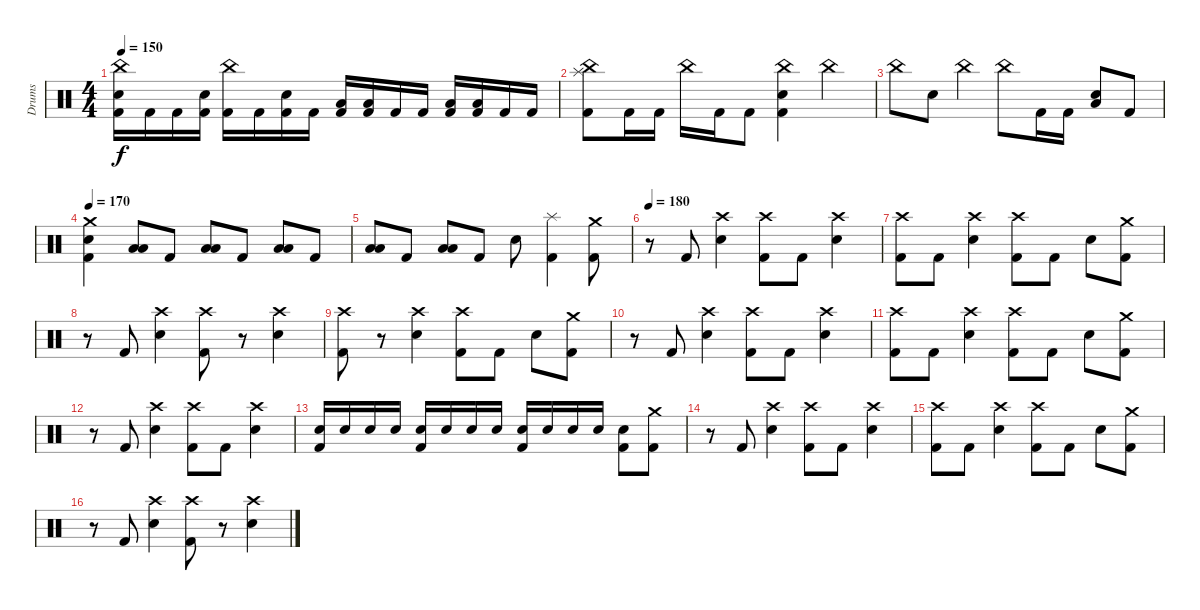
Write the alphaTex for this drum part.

\track ("Drums" "Drums") {instrument percussion}
\staff {score}
\articulation defaults
\ts (4 4)
\tempo 150
\clef neutral
\ks c
("China (hit)" "Snare (hit) 2" "Kick (hit) 2").16{dy f} "Kick (hit) 2".16 "Kick (hit) 2".16 ("Snare (hit) 2" "Kick (hit) 2").16 ("China (hit)" "Kick (hit) 2").16 "Kick (hit) 2".16 ("Snare (hit) 2" "Kick (hit) 2").16 "Kick (hit) 2".16 ("Low Tom (hit)" "Kick (hit) 2").16 ("Low Tom (hit)" "Kick (hit) 2").16 "Kick (hit) 2".16 "Kick (hit) 2".16 ("Low Floor Tom (hit)" "Kick (hit) 2").16 ("Low Floor Tom (hit)" "Kick (hit) 2").16 "Kick (hit) 2".16 "Kick (hit) 2".16 |
("Splash (hit)" "China (hit)" "Kick (hit) 2").8 "Kick (hit) 2".16 "Kick (hit) 2".16 "China (hit)".16 "Kick (hit) 2".16 "Kick (hit) 2".8 ("China (hit)" "Snare (hit) 2" "Kick (hit) 2").4 "China (hit)".4 |
"China (hit)".8 "Snare (hit) 2".8 "China (hit)".4 "China (hit)".8 "Kick (hit) 2".16 "Kick (hit) 2".16 ("Snare (hit) 2" "Low Floor Tom (hit)").8 "Kick (hit) 2".8 |
\tempo 170
("Crash medium (hit)" "Snare (hit) 2" "Kick (hit) 2").4 ("Low Tom (hit)" "Low Floor Tom (hit)").8 "Kick (hit) 2".8 ("Low Tom (hit)" "Low Floor Tom (hit)").8 "Kick (hit) 2".8 ("Low Tom (hit)" "Low Floor Tom (hit)").8 "Kick (hit) 2".8 |
("Low Tom (hit)" "Low Floor Tom (hit)").8 "Kick (hit) 2".8 ("Low Tom (hit)" "Low Floor Tom (hit)").8 "Kick (hit) 2".8 "Snare (hit) 2".8 ("Splash (hit)" "Kick (hit) 2").4 ("Crash medium (hit)" "Kick (hit) 2").8 |
\tempo 180
r.8 "Kick (hit) 2".8 ("Crash high (hit)" "Snare (hit) 2").4 ("Crash high (hit)" "Kick (hit) 2").8 "Kick (hit) 2".8 ("Crash high (hit)" "Snare (hit) 2").4 |
("Crash high (hit)" "Kick (hit) 2").8 "Kick (hit) 2".8 ("Crash high (hit)" "Snare (hit) 2").4 ("Crash high (hit)" "Kick (hit) 2").8 "Kick (hit) 2".8 "Snare (hit) 2".8 ("Crash medium (hit)" "Kick (hit) 2").8 |
r.8 "Kick (hit) 2".8 ("Crash high (hit)" "Snare (hit) 2").4 ("Crash high (hit)" "Kick (hit) 2").8 r.8 ("Crash high (hit)" "Snare (hit) 2").4 |
("Crash high (hit)" "Kick (hit) 2").8 r.8 ("Crash high (hit)" "Snare (hit) 2").4 ("Crash high (hit)" "Kick (hit) 2").8 "Kick (hit) 2".8 "Snare (hit) 2".8 ("Crash medium (hit)" "Kick (hit) 2").8 |
r.8 "Kick (hit) 2".8 ("Crash high (hit)" "Snare (hit) 2").4 ("Crash high (hit)" "Kick (hit) 2").8 "Kick (hit) 2".8 ("Crash high (hit)" "Snare (hit) 2").4 |
("Crash high (hit)" "Kick (hit) 2").8 "Kick (hit) 2".8 ("Crash high (hit)" "Snare (hit) 2").4 ("Crash high (hit)" "Kick (hit) 2").8 "Kick (hit) 2".8 "Snare (hit) 2".8 ("Crash medium (hit)" "Kick (hit) 2").8 |
r.8 "Kick (hit) 2".8 ("Crash high (hit)" "Snare (hit) 2").4 ("Crash high (hit)" "Kick (hit) 2").8 "Kick (hit) 2".8 ("Crash high (hit)" "Snare (hit) 2").4 |
("Snare (hit) 2" "Kick (hit) 2").16 "Snare (hit) 2".16 "Snare (hit) 2".16 "Snare (hit) 2".16 ("Snare (hit) 2" "Kick (hit) 2").16 "Snare (hit) 2".16 "Snare (hit) 2".16 "Snare (hit) 2".16 ("Snare (hit) 2" "Kick (hit) 2").16 "Snare (hit) 2".16 "Snare (hit) 2".16 "Snare (hit) 2".16 ("Snare (hit) 2" "Kick (hit) 2").8 ("Crash medium (hit)" "Kick (hit) 2").8 |
r.8 "Kick (hit) 2".8 ("Crash high (hit)" "Snare (hit) 2").4 ("Crash high (hit)" "Kick (hit) 2").8 "Kick (hit) 2".8 ("Crash high (hit)" "Snare (hit) 2").4 |
("Crash high (hit)" "Kick (hit) 2").8 "Kick (hit) 2".8 ("Crash high (hit)" "Snare (hit) 2").4 ("Crash high (hit)" "Kick (hit) 2").8 "Kick (hit) 2".8 "Snare (hit) 2".8 ("Crash medium (hit)" "Kick (hit) 2").8 |
r.8 "Kick (hit) 2".8 ("Crash high (hit)" "Snare (hit) 2").4 ("Crash high (hit)" "Kick (hit) 2").8 r.8 ("Crash high (hit)" "Snare (hit) 2").4
